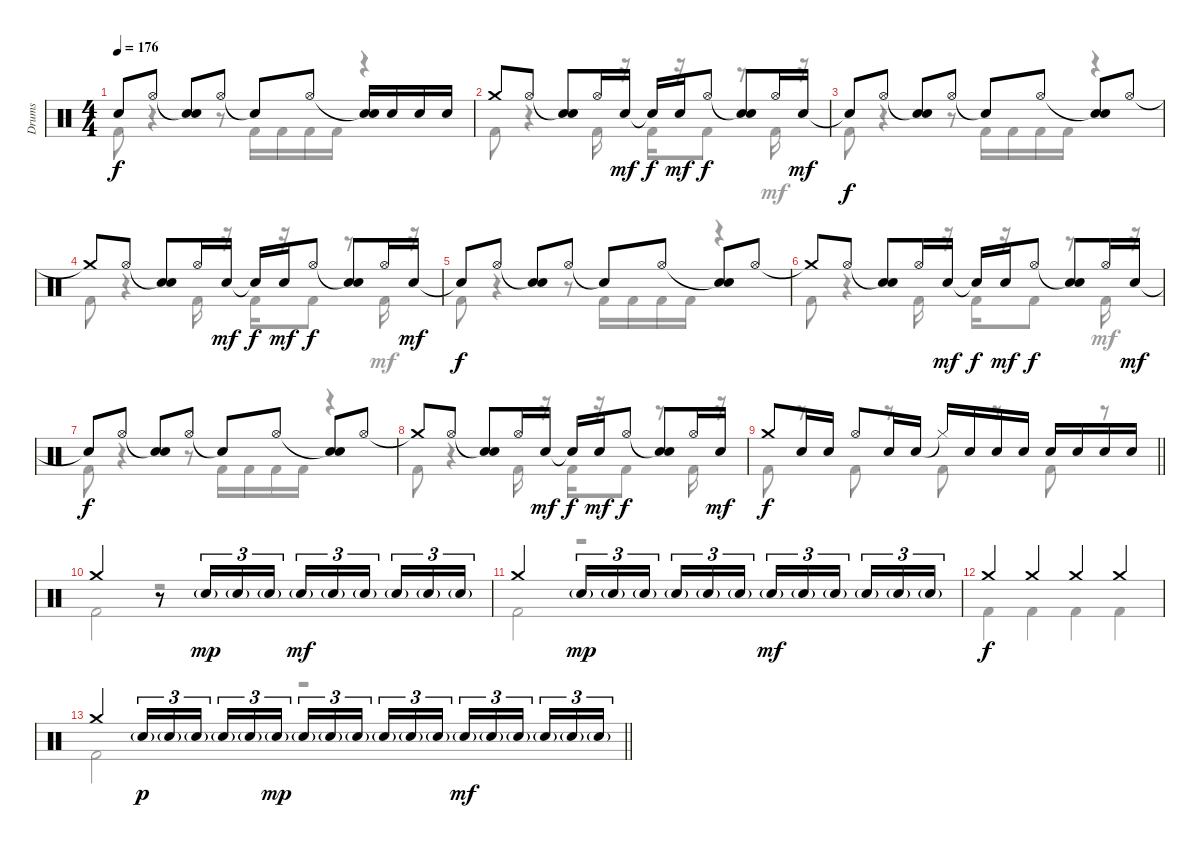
\track ("Drums" "Drums") {instrument percussion}
\staff {score}
\articulation defaults
\voice
\ts (4 4)
\tempo 176
\clef neutral
\ks c "Snare (hit)"{t}.8{dy f} "Hi-Hat (open)".8
("Snare (hit)"{t} "Snare (hit) 2").8 "Hi-Hat (open)".8 "Snare (hit)"{t}.8 "Hi-Hat (open)".8 ("Snare (hit)"{t} "Snare (hit) 2").16 "Snare (hit) 2".16 "Snare (hit) 2".16 "Snare (hit) 2".16 |
"Crash medium (hit)".8 "Hi-Hat (open)".8 ("Snare (hit)"{t} "Snare (hit) 2").8 "Hi-Hat (open)".16 "Snare (hit) 2".16{dy mf} "Snare (hit)"{t}.16{dy f} "Snare (hit) 2".16{dy mf} "Hi-Hat (open)".8{dy f} ("Snare (hit)"{t} "Snare (hit) 2").8 "Hi-Hat (open)".16 "Snare (hit) 2".16{dy mf} |
"Snare (hit)"{t}.8{dy f} "Hi-Hat (open)".8 ("Snare (hit)"{t} "Snare (hit) 2").8 "Hi-Hat (open)".8 "Snare (hit)"{t}.8 "Hi-Hat (open)".8 ("Snare (hit)"{t} "Snare (hit) 2").8 "Hi-Hat (open)".8 |
"Crash medium (hit)"{t}.8 "Hi-Hat (open)".8 ("Snare (hit)"{t} "Snare (hit) 2").8 "Hi-Hat (open)".16 "Snare (hit) 2".16{dy mf} "Snare (hit)"{t}.16{dy f} "Snare (hit) 2".16{dy mf} "Hi-Hat (open)".8{dy f} ("Snare (hit)"{t} "Snare (hit) 2").8 "Hi-Hat (open)".16 "Snare (hit) 2".16{dy mf} |
"Snare (hit)"{t}.8{dy f} "Hi-Hat (open)".8 ("Snare (hit)"{t} "Snare (hit) 2").8 "Hi-Hat (open)".8 "Snare (hit)"{t}.8 "Hi-Hat (open)".8 ("Snare (hit)"{t} "Snare (hit) 2").8 "Hi-Hat (open)".8 |
"Crash medium (hit)"{t}.8 "Hi-Hat (open)".8 ("Snare (hit)"{t} "Snare (hit) 2").8 "Hi-Hat (open)".16 "Snare (hit) 2".16{dy mf} "Snare (hit)"{t}.16{dy f} "Snare (hit) 2".16{dy mf} "Hi-Hat (open)".8{dy f} ("Snare (hit)"{t} "Snare (hit) 2").8 "Hi-Hat (open)".16 "Snare (hit) 2".16{dy mf} |
"Snare (hit)"{t}.8{dy f} "Hi-Hat (open)".8 ("Snare (hit)"{t} "Snare (hit) 2").8 "Hi-Hat (open)".8 "Snare (hit)"{t}.8 "Hi-Hat (open)".8 ("Snare (hit)"{t} "Snare (hit) 2").8 "Hi-Hat (open)".8 |
"Crash medium (hit)"{t}.8 "Hi-Hat (open)".8 ("Snare (hit)"{t} "Snare (hit) 2").8 "Hi-Hat (open)".16 "Snare (hit) 2".16{dy mf} "Snare (hit)"{t}.16{dy f} "Snare (hit) 2".16{dy mf} "Hi-Hat (open)".8{dy f} ("Snare (hit)"{t} "Snare (hit) 2").8 "Hi-Hat (open)".16 "Snare (hit) 2".16{dy mf} |
\barLineRight lightlight "Crash medium (hit)".8{dy f} "Snare (hit) 2".16 "Snare (hit) 2".16 "Hi-Hat (open)".8 "Snare (hit) 2".16 "Snare (hit) 2".16 "Hi-Hat (closed)"{t}.16 "Snare (hit) 2".16 "Snare (hit) 2".16 "Snare (hit) 2".16 "Snare (hit) 2".16 "Snare (hit) 2".16 "Snare (hit) 2".16 "Snare (hit) 2".16
|
"Crash medium (hit)".2 r.8 "Snare (hit) 2"{g}.16{tu (3 2) dy mp} "Snare (hit) 2"{g}.16{tu (3 2)} "Snare (hit) 2"{g}.16{tu (3 2)} "Snare (hit) 2"{g}.16{tu (3 2) dy mf} "Snare (hit) 2"{g}.16{tu (3 2)} "Snare (hit) 2"{g}.16{tu (3 2) beam splitsecondary} "Snare (hit) 2"{g}.16{tu (3 2)} "Snare (hit) 2"{g}.16{tu (3 2)} "Snare (hit) 2"{g}.16{tu (3 2)} |
"Crash medium (hit)".2 "Snare (hit) 2"{g}.16{tu (3 2) dy mp} "Snare (hit) 2"{g}.16{tu (3 2)} "Snare (hit) 2"{g}.16{tu (3 2) beam splitsecondary} "Snare (hit) 2"{g}.16{tu (3 2)} "Snare (hit) 2"{g}.16{tu (3 2)} "Snare (hit) 2"{g}.16{tu (3 2)} "Snare (hit) 2"{g}.16{tu (3 2) dy mf} "Snare (hit) 2"{g}.16{tu (3 2)} "Snare (hit) 2"{g}.16{tu (3 2) beam splitsecondary} "Snare (hit) 2"{g}.16{tu (3 2)} "Snare (hit) 2"{g}.16{tu (3 2)} "Snare (hit) 2"{g}.16{tu (3 2)} |
"Crash medium (hit)".4{dy f} "Crash medium (hit)".4 "Crash medium (hit)".4 "Crash medium (hit)".4 |
\barLineRight lightlight "Crash medium (hit)".4 "Snare (hit) 2"{g}.16{tu (3 2) dy p} "Snare (hit) 2"{g}.16{tu (3 2)} "Snare (hit) 2"{g}.16{tu (3 2) beam splitsecondary} "Snare (hit) 2"{g}.16{tu (3 2)} "Snare (hit) 2"{g}.16{tu (3 2)} "Snare (hit) 2"{g}.16{tu (3 2) dy mp} "Snare (hit) 2"{g}.16{tu (3 2)} "Snare (hit) 2"{g}.16{tu (3 2)} "Snare (hit) 2"{g}.16{tu (3 2) beam splitsecondary} "Snare (hit) 2"{g}.16{tu (3 2)} "Snare (hit) 2"{g}.16{tu (3 2)} "Snare (hit) 2"{g}.16{tu (3 2)} "Snare (hit) 2"{g}.16{tu (3 2) dy mf} "Snare (hit) 2"{g}.16{tu (3 2)} "Snare (hit) 2"{g}.16{tu (3 2) beam splitsecondary} "Snare (hit) 2"{g}.16{tu (3 2)} "Snare (hit) 2"{g}.16{tu (3 2)} "Snare (hit) 2"{g}.16{tu (3 2)}
|
\voice
\clef neutral
\ottava regular
\simile none
\ks c "Kick (hit) 2".8{dy f}
r.4 r.8 "Kick (hit) 2".16 "Kick (hit) 2".16 "Kick (hit) 2".16 "Kick (hit) 2".16 r.4 |
"Kick (hit) 2".8 r.4 "Kick (hit) 2".16 r.16 "Kick (hit) 2".16 r.16 "Kick (hit) 2".8 r.8 "Kick (hit) 2".16{dy mf} r.16 |
"Kick (hit) 2".8{dy f} r.4 r.8 "Kick (hit) 2".16 "Kick (hit) 2".16 "Kick (hit) 2".16 "Kick (hit) 2".16 r.4 |
"Kick (hit) 2".8 r.4 "Kick (hit) 2".16 r.16 "Kick (hit) 2".16 r.16 "Kick (hit) 2".8 r.8 "Kick (hit) 2".16{dy mf} r.16 |
"Kick (hit) 2".8{dy f} r.4 r.8 "Kick (hit) 2".16 "Kick (hit) 2".16 "Kick (hit) 2".16 "Kick (hit) 2".16 r.4 |
"Kick (hit) 2".8 r.4 "Kick (hit) 2".16 r.16 "Kick (hit) 2".16 r.16 "Kick (hit) 2".8 r.8 "Kick (hit) 2".16{dy mf} r.16 |
"Kick (hit) 2".8{dy f} r.4 r.8 "Kick (hit) 2".16 "Kick (hit) 2".16 "Kick (hit) 2".16 "Kick (hit) 2".16 r.4 |
"Kick (hit) 2".8 r.4 "Kick (hit) 2".16 r.16 "Kick (hit) 2".16 r.16 "Kick (hit) 2".8 r.8 "Kick (hit) 2".16 r.16 |
\barLineRight lightlight "Kick (hit) 2".8
r.8 "Kick (hit) 2".8 r.8 "Kick (hit) 2".8 r.8 "Kick (hit) 2".8 r.8 |
"Kick (hit) 2".2 r.2 |
"Kick (hit) 2".2 r.2 |
"Kick (hit) 2".4 "Kick (hit) 2".4 "Kick (hit) 2".4 "Kick (hit) 2".4 |
\barLineRight lightlight "Kick (hit) 2".2
r.2 |
